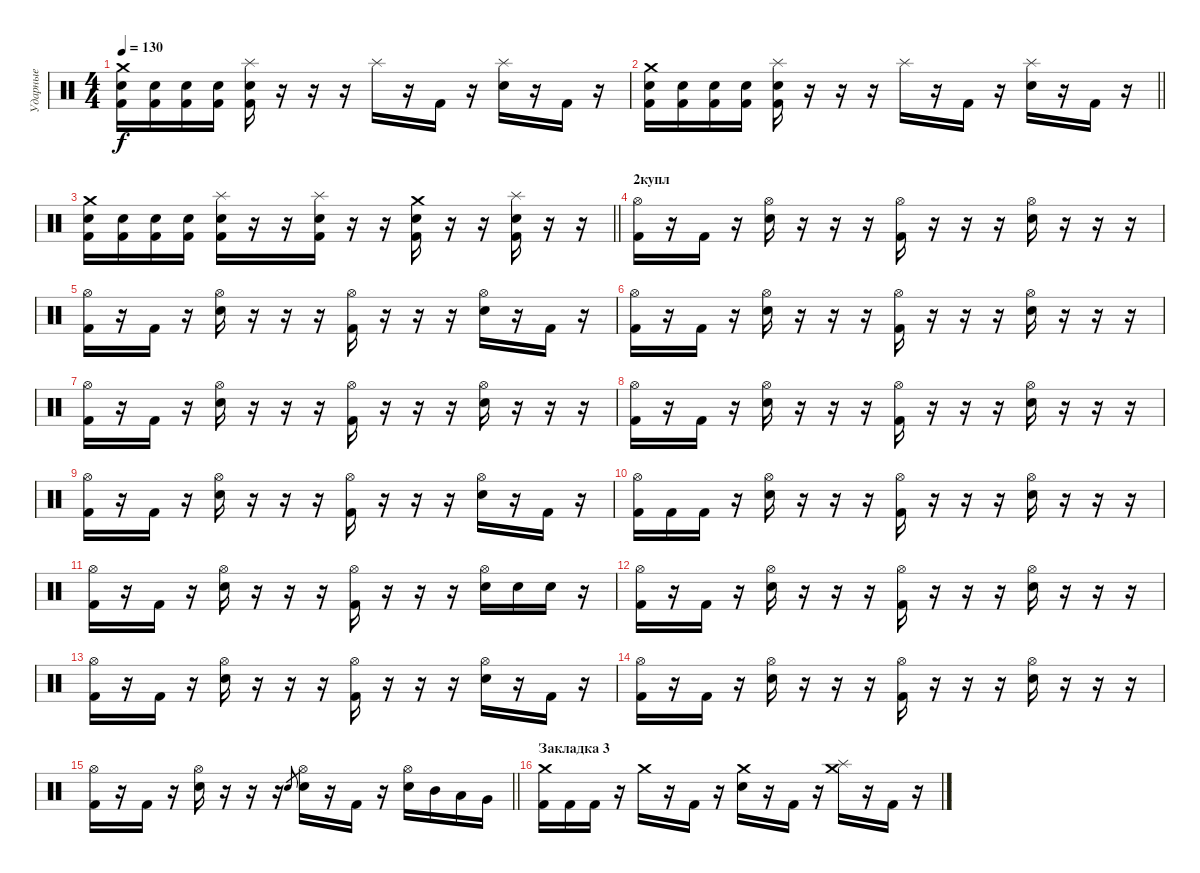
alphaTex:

\track ("Ударные" "Ударные") {instrument percussion}
\staff {score}
\articulation defaults
\ts (4 4)
\tempo 130
\clef neutral
\ks c
("Crash medium (hit)" "Electric Snare (hit)" "Kick (hit) 2").16{dy f} ("Electric Snare (hit)" "Kick (hit) 2").16 ("Electric Snare (hit)" "Kick (hit) 2").16 ("Electric Snare (hit)" "Kick (hit) 2").16 ("Splash (hit)" "Electric Snare (hit)" "Kick (hit) 2").16 r.16 r.16 r.16 "Splash (hit)".16 r.16 "Kick (hit) 2".16 r.16 ("Splash (hit)" "Electric Snare (hit)").16 r.16 "Kick (hit) 2".16 r.16 |
\barLineRight lightlight
("Crash medium (hit)" "Electric Snare (hit)" "Kick (hit) 2").16 ("Electric Snare (hit)" "Kick (hit) 2").16 ("Electric Snare (hit)" "Kick (hit) 2").16 ("Electric Snare (hit)" "Kick (hit) 2").16 ("Splash (hit)" "Electric Snare (hit)" "Kick (hit) 2").16 r.16 r.16 r.16 "Splash (hit)".16 r.16 "Kick (hit) 2".16 r.16 ("Splash (hit)" "Electric Snare (hit)").16 r.16 "Kick (hit) 2".16 r.16 |
\barLineRight lightlight
("Crash medium (hit)" "Electric Snare (hit)" "Kick (hit) 2").16 ("Electric Snare (hit)" "Kick (hit) 2").16 ("Electric Snare (hit)" "Kick (hit) 2").16 ("Electric Snare (hit)" "Kick (hit) 2").16 ("Splash (hit)" "Electric Snare (hit)" "Kick (hit) 2").16 r.16 r.16 ("Splash (hit)" "Electric Snare (hit)" "Kick (hit) 2").16 r.16 r.16 ("Crash medium (hit)" "Electric Snare (hit)" "Kick (hit) 2").16 r.16 r.16 ("Splash (hit)" "Electric Snare (hit)" "Kick (hit) 2").16 r.16 r.16 |
\section ("" "2купл")
("Hi-Hat (open)" "Kick (hit) 2").16 r.16 "Kick (hit) 2".16 r.16 ("Hi-Hat (open)" "Electric Snare (hit)").16 r.16 r.16 r.16 ("Hi-Hat (open)" "Kick (hit) 2").16 r.16 r.16 r.16 ("Hi-Hat (open)" "Electric Snare (hit)").16 r.16 r.16 r.16 |
("Hi-Hat (open)" "Kick (hit) 2").16 r.16 "Kick (hit) 2".16 r.16 ("Hi-Hat (open)" "Electric Snare (hit)").16 r.16 r.16 r.16 ("Hi-Hat (open)" "Kick (hit) 2").16 r.16 r.16 r.16 ("Hi-Hat (open)" "Electric Snare (hit)").16 r.16 "Kick (hit) 2".16 r.16 |
("Hi-Hat (open)" "Kick (hit) 2").16 r.16 "Kick (hit) 2".16 r.16 ("Hi-Hat (open)" "Electric Snare (hit)").16 r.16 r.16 r.16 ("Hi-Hat (open)" "Kick (hit) 2").16 r.16 r.16 r.16 ("Hi-Hat (open)" "Electric Snare (hit)").16 r.16 r.16 r.16 |
("Hi-Hat (open)" "Kick (hit) 2").16 r.16 "Kick (hit) 2".16 r.16 ("Hi-Hat (open)" "Electric Snare (hit)").16 r.16 r.16 r.16 ("Hi-Hat (open)" "Kick (hit) 2").16 r.16 r.16 r.16 ("Hi-Hat (open)" "Electric Snare (hit)").16 r.16 r.16 r.16 |
("Hi-Hat (open)" "Kick (hit) 2").16 r.16 "Kick (hit) 2".16 r.16 ("Hi-Hat (open)" "Electric Snare (hit)").16 r.16 r.16 r.16 ("Hi-Hat (open)" "Kick (hit) 2").16 r.16 r.16 r.16 ("Hi-Hat (open)" "Electric Snare (hit)").16 r.16 r.16 r.16 |
("Hi-Hat (open)" "Kick (hit) 2").16 r.16 "Kick (hit) 2".16 r.16 ("Hi-Hat (open)" "Electric Snare (hit)").16 r.16 r.16 r.16 ("Hi-Hat (open)" "Kick (hit) 2").16 r.16 r.16 r.16 ("Hi-Hat (open)" "Electric Snare (hit)").16 r.16 "Kick (hit) 2".16 r.16 |
("Hi-Hat (open)" "Kick (hit) 2").16 "Kick (hit) 2".16 "Kick (hit) 2".16 r.16 ("Hi-Hat (open)" "Electric Snare (hit)").16 r.16 r.16 r.16 ("Hi-Hat (open)" "Kick (hit) 2").16 r.16 r.16 r.16 ("Hi-Hat (open)" "Electric Snare (hit)").16 r.16 r.16 r.16 |
("Hi-Hat (open)" "Kick (hit) 2").16 r.16 "Kick (hit) 2".16 r.16 ("Hi-Hat (open)" "Electric Snare (hit)").16 r.16 r.16 r.16 ("Hi-Hat (open)" "Kick (hit) 2").16 r.16 r.16 r.16 ("Hi-Hat (open)" "Electric Snare (hit)").16 "Electric Snare (hit)".16 "Electric Snare (hit)".16 r.16 |
("Hi-Hat (open)" "Kick (hit) 2").16 r.16 "Kick (hit) 2".16 r.16 ("Hi-Hat (open)" "Electric Snare (hit)").16 r.16 r.16 r.16 ("Hi-Hat (open)" "Kick (hit) 2").16 r.16 r.16 r.16 ("Hi-Hat (open)" "Electric Snare (hit)").16 r.16 r.16 r.16 |
("Hi-Hat (open)" "Kick (hit) 2").16 r.16 "Kick (hit) 2".16 r.16 ("Hi-Hat (open)" "Electric Snare (hit)").16 r.16 r.16 r.16 ("Hi-Hat (open)" "Kick (hit) 2").16 r.16 r.16 r.16 ("Hi-Hat (open)" "Electric Snare (hit)").16 r.16 "Kick (hit) 2".16 r.16 |
("Hi-Hat (open)" "Kick (hit) 2").16 r.16 "Kick (hit) 2".16 r.16 ("Hi-Hat (open)" "Electric Snare (hit)").16 r.16 r.16 r.16 ("Hi-Hat (open)" "Kick (hit) 2").16 r.16 r.16 r.16 ("Hi-Hat (open)" "Electric Snare (hit)").16 r.16 r.16 r.16 |
\barLineRight lightlight
("Hi-Hat (open)" "Kick (hit) 2").16 r.16 "Kick (hit) 2".16 r.16 ("Hi-Hat (open)" "Electric Snare (hit)").16 r.16 r.16 r.16 "Electric Snare (hit)".8{gr} ("Hi-Hat (open)" "Electric Snare (hit)").16 r.16 "Kick (hit) 2".16 r.16 ("Hi-Hat (open)" "Electric Snare (hit)").16 "Mid Tom (hit)".16 "Low Tom (hit)".16 "Very Low Tom (hit)".16 |
\section ("" "Закладка 3")
("Crash medium (hit)" "Kick (hit) 2").16 "Kick (hit) 2".16 "Kick (hit) 2".16 r.16 "Crash medium (hit)".16 r.16 "Kick (hit) 2".16 r.16 ("Crash medium (hit)" "Electric Snare (hit)").16 r.16 "Kick (hit) 2".16 r.16 ("Crash medium (hit)" "Splash (hit)").16 r.16 "Kick (hit) 2".16 r.16
